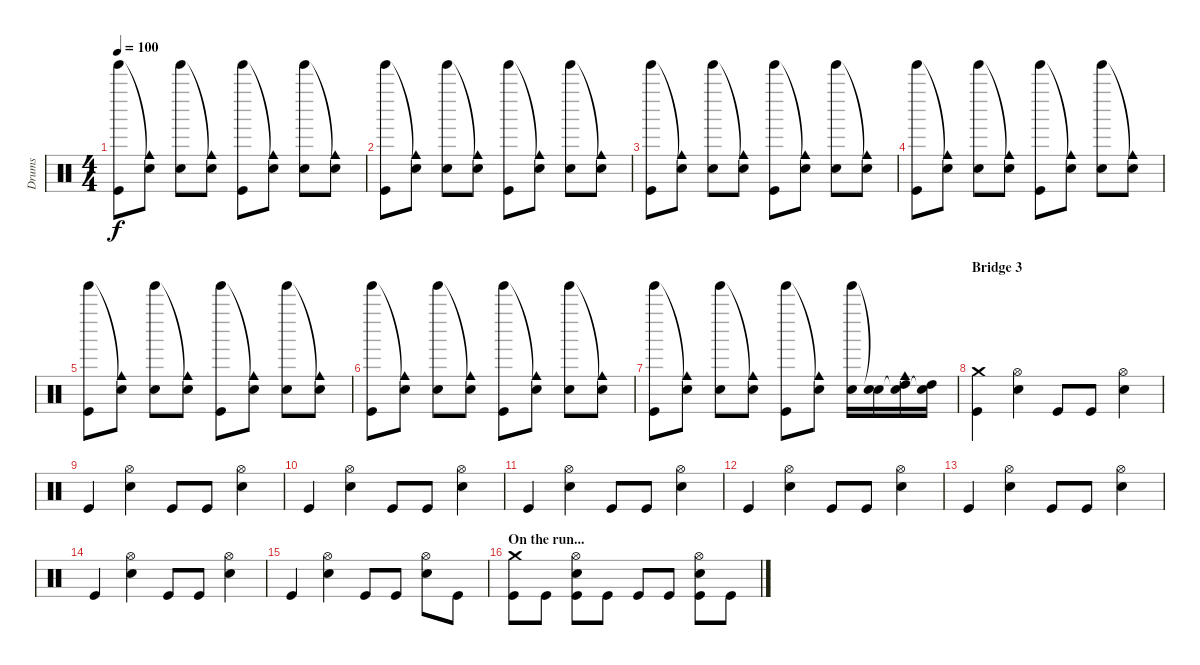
\track ("Drums" "Drums") {instrument percussion}
\staff {score}
\articulation defaults
\ts (4 4)
\tempo 100
\clef neutral
\ks c
("Tinkle Bell (hit)" "Kick (hit)").8{dy f} ("Snare (hit)"{t} "Cowbell medium (hit)").8 ("Tinkle Bell (hit)" "Electric Snare (hit)").8 ("Snare (hit)"{t} "Cowbell medium (hit)").8 ("Tinkle Bell (hit)" "Kick (hit)").8 ("Snare (hit)"{t} "Cowbell medium (hit)").8 ("Tinkle Bell (hit)" "Electric Snare (hit)").8 ("Snare (hit)"{t} "Cowbell medium (hit)").8 |
("Tinkle Bell (hit)" "Kick (hit)").8 ("Snare (hit)"{t} "Cowbell medium (hit)").8 ("Tinkle Bell (hit)" "Electric Snare (hit)").8 ("Snare (hit)"{t} "Cowbell medium (hit)").8 ("Tinkle Bell (hit)" "Kick (hit)").8 ("Snare (hit)"{t} "Cowbell medium (hit)").8 ("Tinkle Bell (hit)" "Electric Snare (hit)").8 ("Snare (hit)"{t} "Cowbell medium (hit)").8 |
("Tinkle Bell (hit)" "Kick (hit)").8 ("Snare (hit)"{t} "Cowbell medium (hit)").8 ("Tinkle Bell (hit)" "Electric Snare (hit)").8 ("Snare (hit)"{t} "Cowbell medium (hit)").8 ("Tinkle Bell (hit)" "Kick (hit)").8 ("Snare (hit)"{t} "Cowbell medium (hit)").8 ("Tinkle Bell (hit)" "Electric Snare (hit)").8 ("Snare (hit)"{t} "Cowbell medium (hit)").8 |
("Tinkle Bell (hit)" "Kick (hit)").8 ("Snare (hit)"{t} "Cowbell medium (hit)").8 ("Tinkle Bell (hit)" "Electric Snare (hit)").8 ("Snare (hit)"{t} "Cowbell medium (hit)").8 ("Tinkle Bell (hit)" "Kick (hit)").8 ("Snare (hit)"{t} "Cowbell medium (hit)").8 ("Tinkle Bell (hit)" "Electric Snare (hit)").8 ("Snare (hit)"{t} "Cowbell medium (hit)").8 |
("Tinkle Bell (hit)" "Kick (hit)").8 ("Snare (hit)"{t} "Cowbell medium (hit)").8 ("Tinkle Bell (hit)" "Electric Snare (hit)").8 ("Snare (hit)"{t} "Cowbell medium (hit)").8 ("Tinkle Bell (hit)" "Kick (hit)").8 ("Snare (hit)"{t} "Cowbell medium (hit)").8 ("Tinkle Bell (hit)" "Electric Snare (hit)").8 ("Snare (hit)"{t} "Cowbell medium (hit)").8 |
("Tinkle Bell (hit)" "Kick (hit)").8 ("Snare (hit)"{t} "Cowbell medium (hit)").8 ("Tinkle Bell (hit)" "Electric Snare (hit)").8 ("Snare (hit)"{t} "Cowbell medium (hit)").8 ("Tinkle Bell (hit)" "Kick (hit)").8 ("Snare (hit)"{t} "Cowbell medium (hit)").8 ("Tinkle Bell (hit)" "Electric Snare (hit)").8 ("Snare (hit)"{t} "Cowbell medium (hit)").8 |
("Tinkle Bell (hit)" "Kick (hit)").8 ("Snare (hit)"{t} "Cowbell medium (hit)").8 ("Tinkle Bell (hit)" "Electric Snare (hit)").8 ("Snare (hit)"{t} "Cowbell medium (hit)").8 ("Tinkle Bell (hit)" "Kick (hit)").8 ("Snare (hit)"{t} "Cowbell medium (hit)").8 ("Tinkle Bell (hit)" "Electric Snare (hit)").16 ("Snare (hit)"{t} "Electric Snare (hit)").16 ("Snare (hit)"{t} "Cowbell medium (hit)" "High Tom (hit)").16 ("Snare (hit)"{t} "High Tom (hit)").16 |
\section ("" "Bridge 3")
("Crash medium (hit)" "Kick (hit)").4 ("Hi-Hat (open)" "Electric Snare (hit)").4 "Kick (hit)".8 "Kick (hit)".8 ("Hi-Hat (open)" "Electric Snare (hit)").4 |
"Kick (hit)".4 ("Hi-Hat (open)" "Electric Snare (hit)").4 "Kick (hit)".8 "Kick (hit)".8 ("Hi-Hat (open)" "Electric Snare (hit)").4 |
"Kick (hit)".4 ("Hi-Hat (open)" "Electric Snare (hit)").4 "Kick (hit)".8 "Kick (hit)".8 ("Hi-Hat (open)" "Electric Snare (hit)").4 |
"Kick (hit)".4 ("Hi-Hat (open)" "Electric Snare (hit)").4 "Kick (hit)".8 "Kick (hit)".8 ("Hi-Hat (open)" "Electric Snare (hit)").4 |
"Kick (hit)".4 ("Hi-Hat (open)" "Electric Snare (hit)").4 "Kick (hit)".8 "Kick (hit)".8 ("Hi-Hat (open)" "Electric Snare (hit)").4 |
"Kick (hit)".4 ("Hi-Hat (open)" "Electric Snare (hit)").4 "Kick (hit)".8 "Kick (hit)".8 ("Hi-Hat (open)" "Electric Snare (hit)").4 |
"Kick (hit)".4 ("Hi-Hat (open)" "Electric Snare (hit)").4 "Kick (hit)".8 "Kick (hit)".8 ("Hi-Hat (open)" "Electric Snare (hit)").4 |
"Kick (hit)".4 ("Hi-Hat (open)" "Electric Snare (hit)").4 "Kick (hit)".8 "Kick (hit)".8 ("Hi-Hat (open)" "Electric Snare (hit)").8 "Kick (hit)".8 |
\section ("" "On the run...")
("Crash medium (hit)" "Kick (hit)").8 "Kick (hit)".8 ("Hi-Hat (open)" "Electric Snare (hit)" "Kick (hit)").8 "Kick (hit)".8 "Kick (hit)".8 "Kick (hit)".8 ("Hi-Hat (open)" "Electric Snare (hit)" "Kick (hit)").8 "Kick (hit)".8
